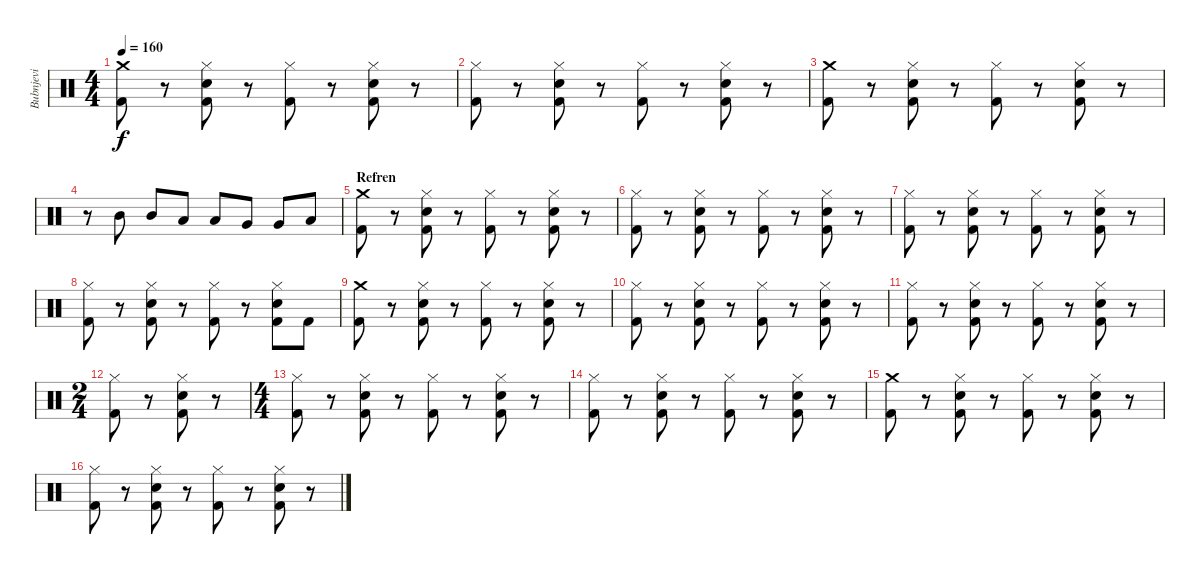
\track ("Bubnjevi" "Bubnjevi") {instrument percussion}
\staff {score}
\articulation defaults
\ts (4 4)
\tempo 160
\clef neutral
\ks c
("Crash medium (hit)" "Kick (hit) 2").8{dy f} r.8 ("Electric Snare (hit)" "Hi-Hat (closed)" "Kick (hit) 2").8 r.8 ("Hi-Hat (closed)" "Kick (hit) 2").8 r.8 ("Electric Snare (hit)" "Hi-Hat (closed)" "Kick (hit) 2").8 r.8 |
("Hi-Hat (closed)" "Kick (hit) 2").8 r.8 ("Electric Snare (hit)" "Hi-Hat (closed)" "Kick (hit) 2").8 r.8 ("Hi-Hat (closed)" "Kick (hit) 2").8 r.8 ("Electric Snare (hit)" "Hi-Hat (closed)" "Kick (hit) 2").8 r.8 |
("Crash medium (hit)" "Kick (hit) 2").8 r.8 ("Electric Snare (hit)" "Hi-Hat (closed)" "Kick (hit) 2").8 r.8 ("Hi-Hat (closed)" "Kick (hit) 2").8 r.8 ("Electric Snare (hit)" "Hi-Hat (closed)" "Kick (hit) 2").8 r.8 |
r.8 "Mid Tom (hit)".8 "Mid Tom (hit)".8 "Low Tom (hit)".8 "Low Tom (hit)".8 "Very Low Tom (hit)".8 "Very Low Tom (hit)".8 "Low Floor Tom (hit)".8 |
\section ("" "Refren")
("Crash medium (hit)" "Kick (hit) 2").8 r.8 ("Electric Snare (hit)" "Hi-Hat (closed)" "Kick (hit) 2").8 r.8 ("Hi-Hat (closed)" "Kick (hit) 2").8 r.8 ("Electric Snare (hit)" "Hi-Hat (closed)" "Kick (hit) 2").8 r.8 |
("Hi-Hat (closed)" "Kick (hit) 2").8 r.8 ("Electric Snare (hit)" "Hi-Hat (closed)" "Kick (hit) 2").8 r.8 ("Hi-Hat (closed)" "Kick (hit) 2").8 r.8 ("Electric Snare (hit)" "Hi-Hat (closed)" "Kick (hit) 2").8 r.8 |
("Hi-Hat (closed)" "Kick (hit) 2").8 r.8 ("Electric Snare (hit)" "Hi-Hat (closed)" "Kick (hit) 2").8 r.8 ("Hi-Hat (closed)" "Kick (hit) 2").8 r.8 ("Electric Snare (hit)" "Hi-Hat (closed)" "Kick (hit) 2").8 r.8 |
("Hi-Hat (closed)" "Kick (hit) 2").8 r.8 ("Electric Snare (hit)" "Hi-Hat (closed)" "Kick (hit) 2").8 r.8 ("Hi-Hat (closed)" "Kick (hit) 2").8 r.8 ("Electric Snare (hit)" "Hi-Hat (closed)" "Kick (hit) 2").8 "Kick (hit) 2".8 |
("Crash medium (hit)" "Kick (hit) 2").8 r.8 ("Electric Snare (hit)" "Hi-Hat (closed)" "Kick (hit) 2").8 r.8 ("Hi-Hat (closed)" "Kick (hit) 2").8 r.8 ("Electric Snare (hit)" "Hi-Hat (closed)" "Kick (hit) 2").8 r.8 |
("Hi-Hat (closed)" "Kick (hit) 2").8 r.8 ("Electric Snare (hit)" "Hi-Hat (closed)" "Kick (hit) 2").8 r.8 ("Hi-Hat (closed)" "Kick (hit) 2").8 r.8 ("Electric Snare (hit)" "Hi-Hat (closed)" "Kick (hit) 2").8 r.8 |
("Hi-Hat (closed)" "Kick (hit) 2").8 r.8 ("Electric Snare (hit)" "Hi-Hat (closed)" "Kick (hit) 2").8 r.8 ("Hi-Hat (closed)" "Kick (hit) 2").8 r.8 ("Electric Snare (hit)" "Hi-Hat (closed)" "Kick (hit) 2").8 r.8 |
\ts (2 4)
("Hi-Hat (closed)" "Kick (hit) 2").8 r.8 ("Electric Snare (hit)" "Hi-Hat (closed)" "Kick (hit) 2").8 r.8 |
\ts (4 4)
("Hi-Hat (closed)" "Kick (hit) 2").8 r.8 ("Electric Snare (hit)" "Hi-Hat (closed)" "Kick (hit) 2").8 r.8 ("Hi-Hat (closed)" "Kick (hit) 2").8 r.8 ("Electric Snare (hit)" "Hi-Hat (closed)" "Kick (hit) 2").8 r.8 |
("Hi-Hat (closed)" "Kick (hit) 2").8 r.8 ("Electric Snare (hit)" "Hi-Hat (closed)" "Kick (hit) 2").8 r.8 ("Hi-Hat (closed)" "Kick (hit) 2").8 r.8 ("Electric Snare (hit)" "Hi-Hat (closed)" "Kick (hit) 2").8 r.8 |
("Crash medium (hit)" "Kick (hit) 2").8 r.8 ("Electric Snare (hit)" "Hi-Hat (closed)" "Kick (hit) 2").8 r.8 ("Hi-Hat (closed)" "Kick (hit) 2").8 r.8 ("Electric Snare (hit)" "Hi-Hat (closed)" "Kick (hit) 2").8 r.8 |
("Hi-Hat (closed)" "Kick (hit) 2").8 r.8 ("Electric Snare (hit)" "Hi-Hat (closed)" "Kick (hit) 2").8 r.8 ("Hi-Hat (closed)" "Kick (hit) 2").8 r.8 ("Electric Snare (hit)" "Hi-Hat (closed)" "Kick (hit) 2").8 r.8
